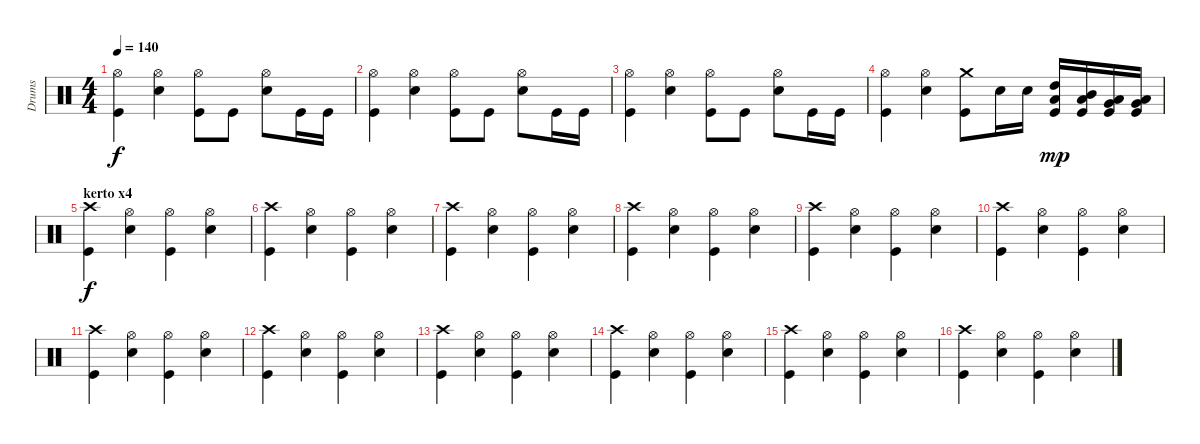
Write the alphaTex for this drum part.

\track ("Drums" "Drums") {instrument percussion}
\staff {score}
\articulation defaults
\ts (4 4)
\tempo 140
\clef neutral
\ks c
("Hi-Hat (open)" "Kick (hit)").4{dy f} ("Hi-Hat (open)" "Snare (hit) 2").4 ("Hi-Hat (open)" "Kick (hit)").8 "Kick (hit)".8 ("Hi-Hat (open)" "Snare (hit) 2").8 "Kick (hit)".16 "Kick (hit)".16 |
("Hi-Hat (open)" "Kick (hit)").4 ("Hi-Hat (open)" "Snare (hit) 2").4 ("Hi-Hat (open)" "Kick (hit)").8 "Kick (hit)".8 ("Hi-Hat (open)" "Snare (hit) 2").8 "Kick (hit)".16 "Kick (hit)".16 |
("Hi-Hat (open)" "Kick (hit)").4 ("Hi-Hat (open)" "Snare (hit) 2").4 ("Hi-Hat (open)" "Kick (hit)").8 "Kick (hit)".8 ("Hi-Hat (open)" "Snare (hit) 2").8 "Kick (hit)".16 "Kick (hit)".16 |
("Hi-Hat (open)" "Kick (hit)").4 ("Hi-Hat (open)" "Snare (hit) 2").4 ("Crash medium (hit)" "Kick (hit)").8 "Snare (hit) 2".16 "Snare (hit) 2".16 ("High Tom (hit)" "Low Tom (hit)" "Kick (hit)").16{dy mp} ("Mid Tom (hit)" "Low Tom (hit)" "Kick (hit)").16 ("Low Tom (hit)" "Very Low Tom (hit)" "Kick (hit)").16 ("Very Low Tom (hit)" "Low Floor Tom (hit)" "Kick (hit)").16 |
\section ("" "kerto x4")
("Crash high (hit)" "Kick (hit)").4{dy f} ("Hi-Hat (open)" "Snare (hit) 2").4 ("Hi-Hat (open)" "Kick (hit)").4 ("Hi-Hat (open)" "Snare (hit) 2").4 |
("Crash high (hit)" "Kick (hit)").4 ("Hi-Hat (open)" "Snare (hit) 2").4 ("Hi-Hat (open)" "Kick (hit)").4 ("Hi-Hat (open)" "Snare (hit) 2").4 |
("Crash high (hit)" "Kick (hit)").4 ("Hi-Hat (open)" "Snare (hit) 2").4 ("Hi-Hat (open)" "Kick (hit)").4 ("Hi-Hat (open)" "Snare (hit) 2").4 |
("Crash high (hit)" "Kick (hit)").4 ("Hi-Hat (open)" "Snare (hit) 2").4 ("Hi-Hat (open)" "Kick (hit)").4 ("Hi-Hat (open)" "Snare (hit) 2").4 |
("Crash high (hit)" "Kick (hit)").4 ("Hi-Hat (open)" "Snare (hit) 2").4 ("Hi-Hat (open)" "Kick (hit)").4 ("Hi-Hat (open)" "Snare (hit) 2").4 |
("Crash high (hit)" "Kick (hit)").4 ("Hi-Hat (open)" "Snare (hit) 2").4 ("Hi-Hat (open)" "Kick (hit)").4 ("Hi-Hat (open)" "Snare (hit) 2").4 |
("Crash high (hit)" "Kick (hit)").4 ("Hi-Hat (open)" "Snare (hit) 2").4 ("Hi-Hat (open)" "Kick (hit)").4 ("Hi-Hat (open)" "Snare (hit) 2").4 |
("Crash high (hit)" "Kick (hit)").4 ("Hi-Hat (open)" "Snare (hit) 2").4 ("Hi-Hat (open)" "Kick (hit)").4 ("Hi-Hat (open)" "Snare (hit) 2").4 |
("Crash high (hit)" "Kick (hit)").4 ("Hi-Hat (open)" "Snare (hit) 2").4 ("Hi-Hat (open)" "Kick (hit)").4 ("Hi-Hat (open)" "Snare (hit) 2").4 |
("Crash high (hit)" "Kick (hit)").4 ("Hi-Hat (open)" "Snare (hit) 2").4 ("Hi-Hat (open)" "Kick (hit)").4 ("Hi-Hat (open)" "Snare (hit) 2").4 |
("Crash high (hit)" "Kick (hit)").4 ("Hi-Hat (open)" "Snare (hit) 2").4 ("Hi-Hat (open)" "Kick (hit)").4 ("Hi-Hat (open)" "Snare (hit) 2").4 |
("Crash high (hit)" "Kick (hit)").4 ("Hi-Hat (open)" "Snare (hit) 2").4 ("Hi-Hat (open)" "Kick (hit)").4 ("Hi-Hat (open)" "Snare (hit) 2").4
